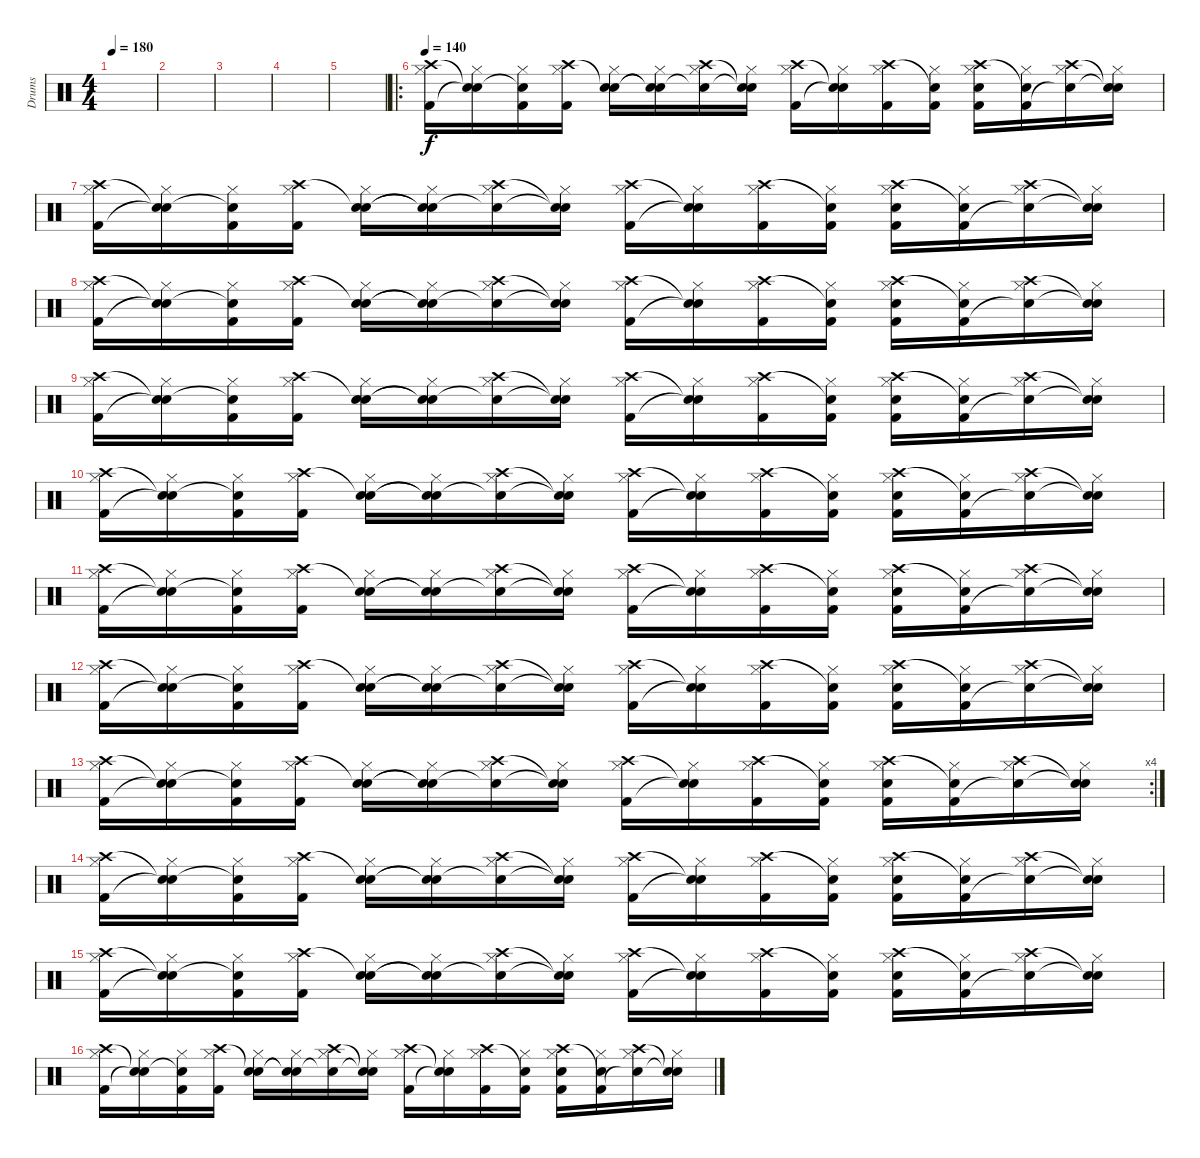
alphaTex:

\track ("Drums" "Drums") {instrument percussion}
\staff {score}
\articulation defaults
\ts (4 4)
\tempo 180
\clef neutral
\ks c
|
|
|
|
|
\ro
\tempo 140
("Crash high (hit)" "Hi-Hat (closed)" "Kick (hit) 2").16 ("Snare (hit)"{t} "Hi-Hat (closed)" "Snare (hit)"{t}).16 ("Snare (hit)"{t} "Hi-Hat (closed)" "Kick (hit) 2").16 ("Crash high (hit)" "Hi-Hat (closed)" "Kick (hit) 2").16 ("Snare (hit)"{t} "Hi-Hat (closed)" "Electric Snare (hit)").16 ("Snare (hit)"{t} "Hi-Hat (closed)" "Snare (hit)"{t}).16 ("Crash high (hit)" "Hi-Hat (closed)" "Snare (hit)"{t}).16 ("Snare (hit)"{t} "Hi-Hat (closed)" "Snare (hit)"{t}).16 ("Crash high (hit)" "Hi-Hat (closed)" "Kick (hit) 2").16 ("Snare (hit)"{t} "Hi-Hat (closed)" "Snare (hit)"{t}).16 ("Crash high (hit)" "Hi-Hat (closed)" "Kick (hit) 2").16 ("Snare (hit)"{t} "Hi-Hat (closed)" "Kick (hit) 2").16 ("Crash high (hit)" "Hi-Hat (closed)" "Snare (hit) 2" "Kick (hit) 2").16 ("Snare (hit)"{t} "Hi-Hat (closed)" "Kick (hit) 2").16 ("Crash high (hit)" "Hi-Hat (closed)" "Snare (hit)"{t}).16 ("Snare (hit)"{t} "Hi-Hat (closed)" "Snare (hit)"{t}).16 |
("Crash high (hit)" "Hi-Hat (closed)" "Kick (hit) 2").16 ("Snare (hit)"{t} "Hi-Hat (closed)" "Snare (hit)"{t}).16 ("Snare (hit)"{t} "Hi-Hat (closed)" "Kick (hit) 2").16 ("Crash high (hit)" "Hi-Hat (closed)" "Kick (hit) 2").16 ("Snare (hit)"{t} "Hi-Hat (closed)" "Electric Snare (hit)").16 ("Snare (hit)"{t} "Hi-Hat (closed)" "Snare (hit)"{t}).16 ("Crash high (hit)" "Hi-Hat (closed)" "Snare (hit)"{t}).16 ("Snare (hit)"{t} "Hi-Hat (closed)" "Snare (hit)"{t}).16 ("Crash high (hit)" "Hi-Hat (closed)" "Kick (hit) 2").16 ("Snare (hit)"{t} "Hi-Hat (closed)" "Snare (hit)"{t}).16 ("Crash high (hit)" "Hi-Hat (closed)" "Kick (hit) 2").16 ("Snare (hit)"{t} "Hi-Hat (closed)" "Kick (hit) 2").16 ("Crash high (hit)" "Hi-Hat (closed)" "Snare (hit) 2" "Kick (hit) 2").16 ("Snare (hit)"{t} "Hi-Hat (closed)" "Kick (hit) 2").16 ("Crash high (hit)" "Hi-Hat (closed)" "Snare (hit)"{t}).16 ("Snare (hit)"{t} "Hi-Hat (closed)" "Snare (hit)"{t}).16 |
("Crash high (hit)" "Hi-Hat (closed)" "Kick (hit) 2").16 ("Snare (hit)"{t} "Hi-Hat (closed)" "Snare (hit)"{t}).16 ("Snare (hit)"{t} "Hi-Hat (closed)" "Kick (hit) 2").16 ("Crash high (hit)" "Hi-Hat (closed)" "Kick (hit) 2").16 ("Snare (hit)"{t} "Hi-Hat (closed)" "Electric Snare (hit)").16 ("Snare (hit)"{t} "Hi-Hat (closed)" "Snare (hit)"{t}).16 ("Crash high (hit)" "Hi-Hat (closed)" "Snare (hit)"{t}).16 ("Snare (hit)"{t} "Hi-Hat (closed)" "Snare (hit)"{t}).16 ("Crash high (hit)" "Hi-Hat (closed)" "Kick (hit) 2").16 ("Snare (hit)"{t} "Hi-Hat (closed)" "Snare (hit)"{t}).16 ("Crash high (hit)" "Hi-Hat (closed)" "Kick (hit) 2").16 ("Snare (hit)"{t} "Hi-Hat (closed)" "Kick (hit) 2").16 ("Crash high (hit)" "Hi-Hat (closed)" "Snare (hit) 2" "Kick (hit) 2").16 ("Snare (hit)"{t} "Hi-Hat (closed)" "Kick (hit) 2").16 ("Crash high (hit)" "Hi-Hat (closed)" "Snare (hit)"{t}).16 ("Snare (hit)"{t} "Hi-Hat (closed)" "Snare (hit)"{t}).16 |
("Crash high (hit)" "Hi-Hat (closed)" "Kick (hit) 2").16 ("Snare (hit)"{t} "Hi-Hat (closed)" "Snare (hit)"{t}).16 ("Snare (hit)"{t} "Hi-Hat (closed)" "Kick (hit) 2").16 ("Crash high (hit)" "Hi-Hat (closed)" "Kick (hit) 2").16 ("Snare (hit)"{t} "Hi-Hat (closed)" "Electric Snare (hit)").16 ("Snare (hit)"{t} "Hi-Hat (closed)" "Snare (hit)"{t}).16 ("Crash high (hit)" "Hi-Hat (closed)" "Snare (hit)"{t}).16 ("Snare (hit)"{t} "Hi-Hat (closed)" "Snare (hit)"{t}).16 ("Crash high (hit)" "Hi-Hat (closed)" "Kick (hit) 2").16 ("Snare (hit)"{t} "Hi-Hat (closed)" "Snare (hit)"{t}).16 ("Crash high (hit)" "Hi-Hat (closed)" "Kick (hit) 2").16 ("Snare (hit)"{t} "Hi-Hat (closed)" "Kick (hit) 2").16 ("Crash high (hit)" "Hi-Hat (closed)" "Snare (hit) 2" "Kick (hit) 2").16 ("Snare (hit)"{t} "Hi-Hat (closed)" "Kick (hit) 2").16 ("Crash high (hit)" "Hi-Hat (closed)" "Snare (hit)"{t}).16 ("Snare (hit)"{t} "Hi-Hat (closed)" "Snare (hit)"{t}).16 |
("Crash high (hit)" "Hi-Hat (closed)" "Kick (hit) 2").16 ("Snare (hit)"{t} "Hi-Hat (closed)" "Snare (hit)"{t}).16 ("Snare (hit)"{t} "Hi-Hat (closed)" "Kick (hit) 2").16 ("Crash high (hit)" "Hi-Hat (closed)" "Kick (hit) 2").16 ("Snare (hit)"{t} "Hi-Hat (closed)" "Electric Snare (hit)").16 ("Snare (hit)"{t} "Hi-Hat (closed)" "Snare (hit)"{t}).16 ("Crash high (hit)" "Hi-Hat (closed)" "Snare (hit)"{t}).16 ("Snare (hit)"{t} "Hi-Hat (closed)" "Snare (hit)"{t}).16 ("Crash high (hit)" "Hi-Hat (closed)" "Kick (hit) 2").16 ("Snare (hit)"{t} "Hi-Hat (closed)" "Snare (hit)"{t}).16 ("Crash high (hit)" "Hi-Hat (closed)" "Kick (hit) 2").16 ("Snare (hit)"{t} "Hi-Hat (closed)" "Kick (hit) 2").16 ("Crash high (hit)" "Hi-Hat (closed)" "Snare (hit) 2" "Kick (hit) 2").16 ("Snare (hit)"{t} "Hi-Hat (closed)" "Kick (hit) 2").16 ("Crash high (hit)" "Hi-Hat (closed)" "Snare (hit)"{t}).16 ("Snare (hit)"{t} "Hi-Hat (closed)" "Snare (hit)"{t}).16 |
("Crash high (hit)" "Hi-Hat (closed)" "Kick (hit) 2").16 ("Snare (hit)"{t} "Hi-Hat (closed)" "Snare (hit)"{t}).16 ("Snare (hit)"{t} "Hi-Hat (closed)" "Kick (hit) 2").16 ("Crash high (hit)" "Hi-Hat (closed)" "Kick (hit) 2").16 ("Snare (hit)"{t} "Hi-Hat (closed)" "Electric Snare (hit)").16 ("Snare (hit)"{t} "Hi-Hat (closed)" "Snare (hit)"{t}).16 ("Crash high (hit)" "Hi-Hat (closed)" "Snare (hit)"{t}).16 ("Snare (hit)"{t} "Hi-Hat (closed)" "Snare (hit)"{t}).16 ("Crash high (hit)" "Hi-Hat (closed)" "Kick (hit) 2").16 ("Snare (hit)"{t} "Hi-Hat (closed)" "Snare (hit)"{t}).16 ("Crash high (hit)" "Hi-Hat (closed)" "Kick (hit) 2").16 ("Snare (hit)"{t} "Hi-Hat (closed)" "Kick (hit) 2").16 ("Crash high (hit)" "Hi-Hat (closed)" "Snare (hit) 2" "Kick (hit) 2").16 ("Snare (hit)"{t} "Hi-Hat (closed)" "Kick (hit) 2").16 ("Crash high (hit)" "Hi-Hat (closed)" "Snare (hit)"{t}).16 ("Snare (hit)"{t} "Hi-Hat (closed)" "Snare (hit)"{t}).16 |
("Crash high (hit)" "Hi-Hat (closed)" "Kick (hit) 2").16 ("Snare (hit)"{t} "Hi-Hat (closed)" "Snare (hit)"{t}).16 ("Snare (hit)"{t} "Hi-Hat (closed)" "Kick (hit) 2").16 ("Crash high (hit)" "Hi-Hat (closed)" "Kick (hit) 2").16 ("Snare (hit)"{t} "Hi-Hat (closed)" "Electric Snare (hit)").16 ("Snare (hit)"{t} "Hi-Hat (closed)" "Snare (hit)"{t}).16 ("Crash high (hit)" "Hi-Hat (closed)" "Snare (hit)"{t}).16 ("Snare (hit)"{t} "Hi-Hat (closed)" "Snare (hit)"{t}).16 ("Crash high (hit)" "Hi-Hat (closed)" "Kick (hit) 2").16 ("Snare (hit)"{t} "Hi-Hat (closed)" "Snare (hit)"{t}).16 ("Crash high (hit)" "Hi-Hat (closed)" "Kick (hit) 2").16 ("Snare (hit)"{t} "Hi-Hat (closed)" "Kick (hit) 2").16 ("Crash high (hit)" "Hi-Hat (closed)" "Snare (hit) 2" "Kick (hit) 2").16 ("Snare (hit)"{t} "Hi-Hat (closed)" "Kick (hit) 2").16 ("Crash high (hit)" "Hi-Hat (closed)" "Snare (hit)"{t}).16 ("Snare (hit)"{t} "Hi-Hat (closed)" "Snare (hit)"{t}).16 |
\rc 4
("Crash high (hit)" "Hi-Hat (closed)" "Kick (hit) 2").16 ("Snare (hit)"{t} "Hi-Hat (closed)" "Snare (hit)"{t}).16 ("Snare (hit)"{t} "Hi-Hat (closed)" "Kick (hit) 2").16 ("Crash high (hit)" "Hi-Hat (closed)" "Kick (hit) 2").16 ("Snare (hit)"{t} "Hi-Hat (closed)" "Electric Snare (hit)").16 ("Snare (hit)"{t} "Hi-Hat (closed)" "Snare (hit)"{t}).16 ("Crash high (hit)" "Hi-Hat (closed)" "Snare (hit)"{t}).16 ("Snare (hit)"{t} "Hi-Hat (closed)" "Snare (hit)"{t}).16 ("Crash high (hit)" "Hi-Hat (closed)" "Kick (hit) 2").16 ("Snare (hit)"{t} "Hi-Hat (closed)" "Snare (hit)"{t}).16 ("Crash high (hit)" "Hi-Hat (closed)" "Kick (hit) 2").16 ("Snare (hit)"{t} "Hi-Hat (closed)" "Kick (hit) 2").16 ("Crash high (hit)" "Hi-Hat (closed)" "Snare (hit) 2" "Kick (hit) 2").16 ("Snare (hit)"{t} "Hi-Hat (closed)" "Kick (hit) 2").16 ("Crash high (hit)" "Hi-Hat (closed)" "Snare (hit)"{t}).16 ("Snare (hit)"{t} "Hi-Hat (closed)" "Snare (hit)"{t}).16 |
("Crash high (hit)" "Hi-Hat (closed)" "Kick (hit) 2").16 ("Snare (hit)"{t} "Hi-Hat (closed)" "Snare (hit)"{t}).16 ("Snare (hit)"{t} "Hi-Hat (closed)" "Kick (hit) 2").16 ("Crash high (hit)" "Hi-Hat (closed)" "Kick (hit) 2").16 ("Snare (hit)"{t} "Hi-Hat (closed)" "Electric Snare (hit)").16 ("Snare (hit)"{t} "Hi-Hat (closed)" "Snare (hit)"{t}).16 ("Crash high (hit)" "Hi-Hat (closed)" "Snare (hit)"{t}).16 ("Snare (hit)"{t} "Hi-Hat (closed)" "Snare (hit)"{t}).16 ("Crash high (hit)" "Hi-Hat (closed)" "Kick (hit) 2").16 ("Snare (hit)"{t} "Hi-Hat (closed)" "Snare (hit)"{t}).16 ("Crash high (hit)" "Hi-Hat (closed)" "Kick (hit) 2").16 ("Snare (hit)"{t} "Hi-Hat (closed)" "Kick (hit) 2").16 ("Crash high (hit)" "Hi-Hat (closed)" "Snare (hit) 2" "Kick (hit) 2").16 ("Snare (hit)"{t} "Hi-Hat (closed)" "Kick (hit) 2").16 ("Crash high (hit)" "Hi-Hat (closed)" "Snare (hit)"{t}).16 ("Snare (hit)"{t} "Hi-Hat (closed)" "Snare (hit)"{t}).16 |
("Crash high (hit)" "Hi-Hat (closed)" "Kick (hit) 2").16 ("Snare (hit)"{t} "Hi-Hat (closed)" "Snare (hit)"{t}).16 ("Snare (hit)"{t} "Hi-Hat (closed)" "Kick (hit) 2").16 ("Crash high (hit)" "Hi-Hat (closed)" "Kick (hit) 2").16 ("Snare (hit)"{t} "Hi-Hat (closed)" "Electric Snare (hit)").16 ("Snare (hit)"{t} "Hi-Hat (closed)" "Snare (hit)"{t}).16 ("Crash high (hit)" "Hi-Hat (closed)" "Snare (hit)"{t}).16 ("Snare (hit)"{t} "Hi-Hat (closed)" "Snare (hit)"{t}).16 ("Crash high (hit)" "Hi-Hat (closed)" "Kick (hit) 2").16 ("Snare (hit)"{t} "Hi-Hat (closed)" "Snare (hit)"{t}).16 ("Crash high (hit)" "Hi-Hat (closed)" "Kick (hit) 2").16 ("Snare (hit)"{t} "Hi-Hat (closed)" "Kick (hit) 2").16 ("Crash high (hit)" "Hi-Hat (closed)" "Snare (hit) 2" "Kick (hit) 2").16 ("Snare (hit)"{t} "Hi-Hat (closed)" "Kick (hit) 2").16 ("Crash high (hit)" "Hi-Hat (closed)" "Snare (hit)"{t}).16 ("Snare (hit)"{t} "Hi-Hat (closed)" "Snare (hit)"{t}).16 |
("Crash high (hit)" "Hi-Hat (closed)" "Kick (hit) 2").16 ("Snare (hit)"{t} "Hi-Hat (closed)" "Snare (hit)"{t}).16 ("Snare (hit)"{t} "Hi-Hat (closed)" "Kick (hit) 2").16 ("Crash high (hit)" "Hi-Hat (closed)" "Kick (hit) 2").16 ("Snare (hit)"{t} "Hi-Hat (closed)" "Electric Snare (hit)").16 ("Snare (hit)"{t} "Hi-Hat (closed)" "Snare (hit)"{t}).16 ("Crash high (hit)" "Hi-Hat (closed)" "Snare (hit)"{t}).16 ("Snare (hit)"{t} "Hi-Hat (closed)" "Snare (hit)"{t}).16 ("Crash high (hit)" "Hi-Hat (closed)" "Kick (hit) 2").16 ("Snare (hit)"{t} "Hi-Hat (closed)" "Snare (hit)"{t}).16 ("Crash high (hit)" "Hi-Hat (closed)" "Kick (hit) 2").16 ("Snare (hit)"{t} "Hi-Hat (closed)" "Kick (hit) 2").16 ("Crash high (hit)" "Hi-Hat (closed)" "Snare (hit) 2" "Kick (hit) 2").16 ("Snare (hit)"{t} "Hi-Hat (closed)" "Kick (hit) 2").16 ("Crash high (hit)" "Hi-Hat (closed)" "Snare (hit)"{t}).16 ("Snare (hit)"{t} "Hi-Hat (closed)" "Snare (hit)"{t}).16
